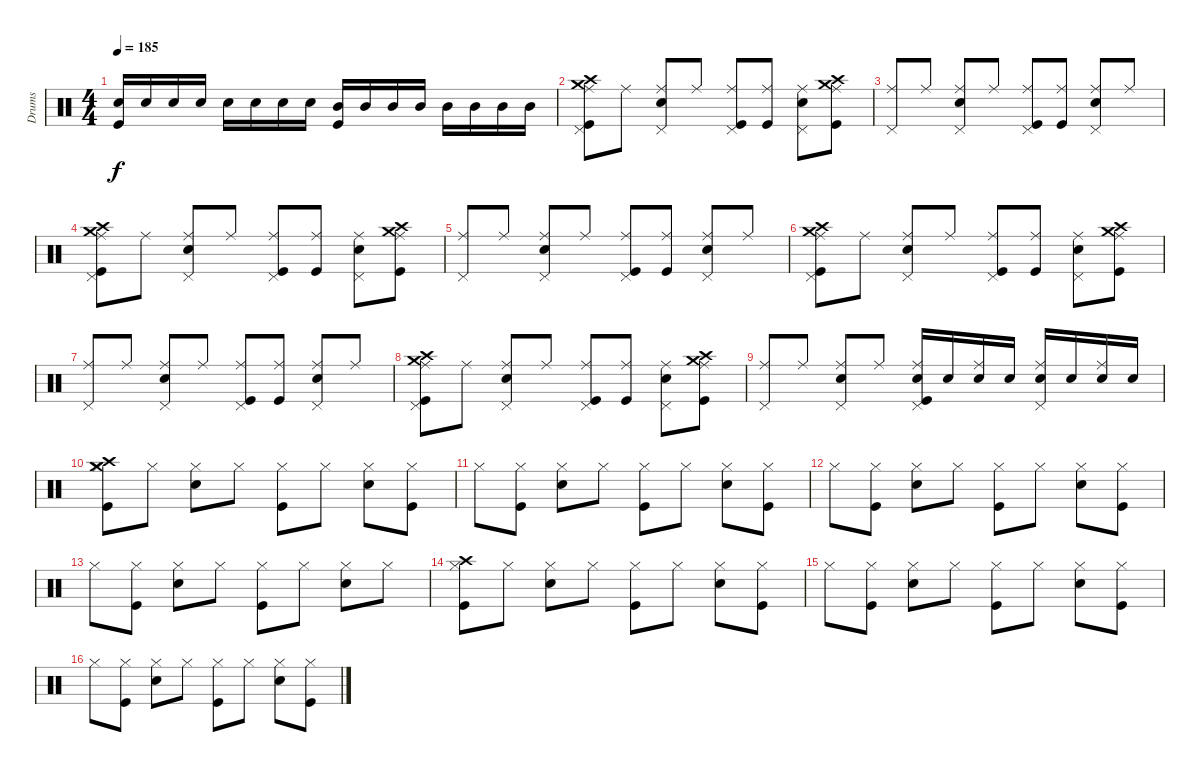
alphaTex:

\track ("Drums" "Drums") {instrument percussion}
\staff {score}
\articulation defaults
\ts (4 4)
\tempo 185
\clef neutral
\ks c
("Electric Snare (hit)" "Kick (hit)").16{dy f} "Electric Snare (hit)".16 "Electric Snare (hit)".16 "Electric Snare (hit)".16 "Electric Snare (hit)".16 "Electric Snare (hit)".16 "Electric Snare (hit)".16 "Electric Snare (hit)".16 ("Mid Tom (hit)" "Kick (hit)").16 "Mid Tom (hit)".16 "Mid Tom (hit)".16 "Mid Tom (hit)".16 "Mid Tom (hit)".16 "Mid Tom (hit)".16 "Mid Tom (hit)".16 "Mid Tom (hit)".16 |
("Ride (middle)" "Pedal Hi-Hat (hit)" "Crash medium (hit)" "Crash high (hit)" "Kick (hit)").8 "Ride (middle)".8 ("Ride (middle)" "Pedal Hi-Hat (hit)" "Electric Snare (hit)").8 "Ride (middle)".8 ("Ride (middle)" "Pedal Hi-Hat (hit)" "Kick (hit)").8 ("Kick (hit)" "Ride (middle)").8 ("Ride (middle)" "Pedal Hi-Hat (hit)" "Electric Snare (hit)").8 ("Kick (hit)" "Crash high (hit)" "Crash medium (hit)" "Ride (middle)").8 |
("Ride (middle)" "Pedal Hi-Hat (hit)").8 "Ride (middle)".8 ("Ride (middle)" "Pedal Hi-Hat (hit)" "Electric Snare (hit)").8 "Ride (middle)".8 ("Kick (hit)" "Ride (middle)" "Pedal Hi-Hat (hit)").8 ("Kick (hit)" "Ride (middle)").8 ("Ride (middle)" "Pedal Hi-Hat (hit)" "Electric Snare (hit)").8 "Ride (middle)".8 |
("Kick (hit)" "Pedal Hi-Hat (hit)" "Ride (middle)" "Crash high (hit)" "Crash medium (hit)").8 "Ride (middle)".8 ("Electric Snare (hit)" "Pedal Hi-Hat (hit)" "Ride (middle)").8 "Ride (middle)".8 ("Kick (hit)" "Pedal Hi-Hat (hit)" "Ride (middle)").8 ("Kick (hit)" "Ride (middle)").8 ("Electric Snare (hit)" "Pedal Hi-Hat (hit)" "Ride (middle)").8 ("Crash medium (hit)" "Crash high (hit)" "Kick (hit)" "Ride (middle)").8 |
("Ride (middle)" "Pedal Hi-Hat (hit)").8 "Ride (middle)".8 ("Ride (middle)" "Pedal Hi-Hat (hit)" "Electric Snare (hit)").8 "Ride (middle)".8 ("Kick (hit)" "Ride (middle)" "Pedal Hi-Hat (hit)").8 ("Kick (hit)" "Ride (middle)").8 ("Ride (middle)" "Pedal Hi-Hat (hit)" "Electric Snare (hit)").8 "Ride (middle)".8 |
("Ride (middle)" "Pedal Hi-Hat (hit)" "Crash medium (hit)" "Crash high (hit)" "Kick (hit)").8 "Ride (middle)".8 ("Ride (middle)" "Pedal Hi-Hat (hit)" "Electric Snare (hit)").8 "Ride (middle)".8 ("Ride (middle)" "Pedal Hi-Hat (hit)" "Kick (hit)").8 ("Kick (hit)" "Ride (middle)").8 ("Ride (middle)" "Pedal Hi-Hat (hit)" "Electric Snare (hit)").8 ("Kick (hit)" "Crash high (hit)" "Crash medium (hit)" "Ride (middle)").8 |
("Ride (middle)" "Pedal Hi-Hat (hit)").8 "Ride (middle)".8 ("Ride (middle)" "Pedal Hi-Hat (hit)" "Electric Snare (hit)").8 "Ride (middle)".8 ("Kick (hit)" "Ride (middle)" "Pedal Hi-Hat (hit)").8 ("Kick (hit)" "Ride (middle)").8 ("Ride (middle)" "Pedal Hi-Hat (hit)" "Electric Snare (hit)").8 "Ride (middle)".8 |
("Kick (hit)" "Pedal Hi-Hat (hit)" "Ride (middle)" "Crash high (hit)" "Crash medium (hit)").8 "Ride (middle)".8 ("Electric Snare (hit)" "Pedal Hi-Hat (hit)" "Ride (middle)").8 "Ride (middle)".8 ("Kick (hit)" "Pedal Hi-Hat (hit)" "Ride (middle)").8 ("Kick (hit)" "Ride (middle)").8 ("Electric Snare (hit)" "Pedal Hi-Hat (hit)" "Ride (middle)").8 ("Crash medium (hit)" "Crash high (hit)" "Kick (hit)" "Ride (middle)").8 |
("Ride (middle)" "Pedal Hi-Hat (hit)").8 "Ride (middle)".8 ("Ride (middle)" "Pedal Hi-Hat (hit)" "Electric Snare (hit)").8 "Ride (middle)".8 ("Electric Snare (hit)" "Kick (hit)" "Ride (middle)" "Pedal Hi-Hat (hit)").16 "Electric Snare (hit)".16 ("Electric Snare (hit)" "Ride (middle)").16 "Electric Snare (hit)".16 ("Electric Snare (hit)" "Ride (middle)" "Pedal Hi-Hat (hit)").16 "Electric Snare (hit)".16 ("Electric Snare (hit)" "Ride (middle)").16 "Electric Snare (hit)".16 |
("Hi-Hat (closed)" "Crash high (hit)" "Crash medium (hit)" "Kick (hit)").8 "Hi-Hat (closed)".8 ("Electric Snare (hit)" "Hi-Hat (closed)").8 "Hi-Hat (closed)".8 ("Kick (hit)" "Hi-Hat (closed)").8 "Hi-Hat (closed)".8 ("Electric Snare (hit)" "Hi-Hat (closed)").8 ("Hi-Hat (closed)" "Kick (hit)").8 |
"Hi-Hat (closed)".8 ("Kick (hit)" "Hi-Hat (closed)").8 ("Hi-Hat (closed)" "Electric Snare (hit)").8 "Hi-Hat (closed)".8 ("Kick (hit)" "Hi-Hat (closed)").8 "Hi-Hat (closed)".8 ("Electric Snare (hit)" "Hi-Hat (closed)").8 ("Kick (hit)" "Hi-Hat (closed)").8 |
"Hi-Hat (closed)".8 ("Hi-Hat (closed)" "Kick (hit)").8 ("Electric Snare (hit)" "Hi-Hat (closed)").8 "Hi-Hat (closed)".8 ("Kick (hit)" "Hi-Hat (closed)").8 "Hi-Hat (closed)".8 ("Electric Snare (hit)" "Hi-Hat (closed)").8 ("Hi-Hat (closed)" "Kick (hit)").8 |
"Hi-Hat (closed)".8 ("Hi-Hat (closed)" "Kick (hit)").8 ("Hi-Hat (closed)" "Electric Snare (hit)").8 "Hi-Hat (closed)".8 ("Kick (hit)" "Hi-Hat (closed)").8 "Hi-Hat (closed)".8 ("Electric Snare (hit)" "Hi-Hat (closed)").8 "Hi-Hat (closed)".8 |
("Hi-Hat (closed)" "Crash high (hit)" "Kick (hit)").8 "Hi-Hat (closed)".8 ("Hi-Hat (closed)" "Electric Snare (hit)").8 "Hi-Hat (closed)".8 ("Hi-Hat (closed)" "Kick (hit)").8 "Hi-Hat (closed)".8 ("Hi-Hat (closed)" "Electric Snare (hit)").8 ("Kick (hit)" "Hi-Hat (closed)").8 |
"Hi-Hat (closed)".8 ("Kick (hit)" "Hi-Hat (closed)").8 ("Hi-Hat (closed)" "Electric Snare (hit)").8 "Hi-Hat (closed)".8 ("Hi-Hat (closed)" "Kick (hit)").8 "Hi-Hat (closed)".8 ("Hi-Hat (closed)" "Electric Snare (hit)").8 ("Kick (hit)" "Hi-Hat (closed)").8 |
"Hi-Hat (closed)".8 ("Kick (hit)" "Hi-Hat (closed)").8 ("Electric Snare (hit)" "Hi-Hat (closed)").8 "Hi-Hat (closed)".8 ("Hi-Hat (closed)" "Kick (hit)").8 "Hi-Hat (closed)".8 ("Electric Snare (hit)" "Hi-Hat (closed)").8 ("Hi-Hat (closed)" "Kick (hit)").8
